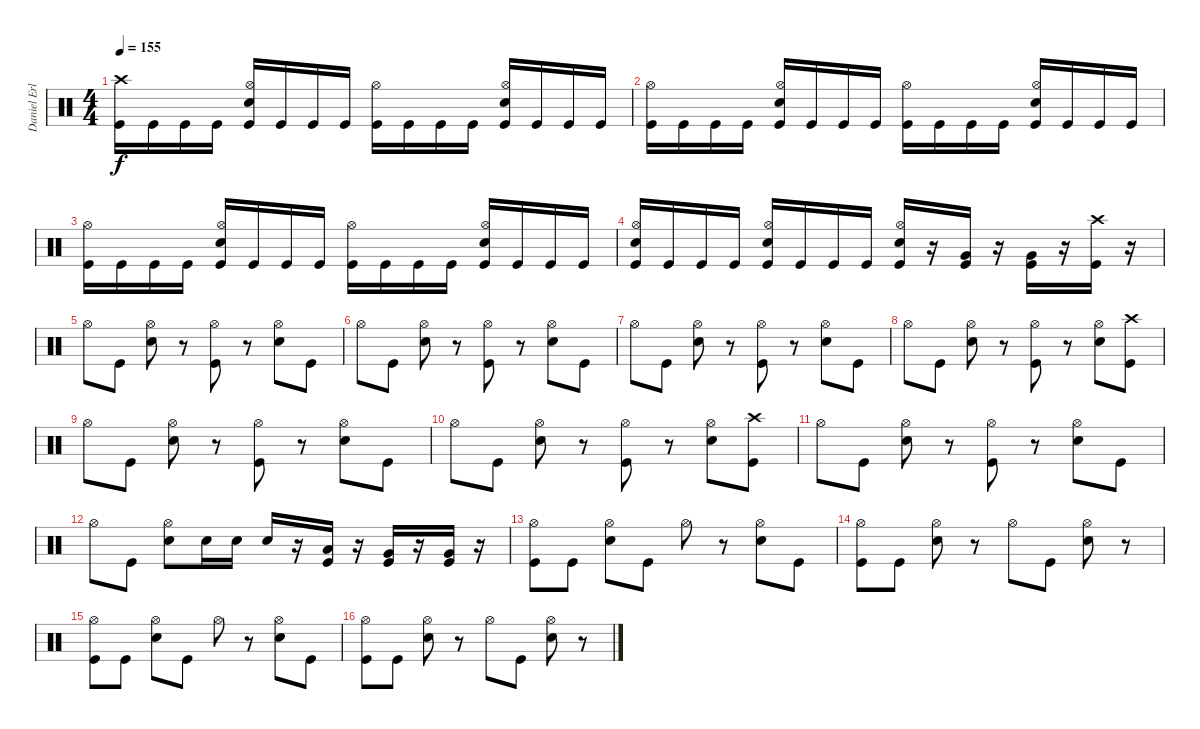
\track ("Daniel Erlandsson" "Daniel Erl") {instrument percussion}
\staff {score}
\articulation defaults
\ts (4 4)
\tempo 155
\clef neutral
\ks c
("Crash high (hit)" "Kick (hit)").16{dy f} "Kick (hit)".16 "Kick (hit)".16 "Kick (hit)".16 ("Hi-Hat (open)" "Snare (hit) 2" "Kick (hit)").16 "Kick (hit)".16 "Kick (hit)".16 "Kick (hit)".16 ("Hi-Hat (open)" "Kick (hit)").16 "Kick (hit)".16 "Kick (hit)".16 "Kick (hit)".16 ("Hi-Hat (open)" "Snare (hit) 2" "Kick (hit)").16 "Kick (hit)".16 "Kick (hit)".16 "Kick (hit)".16 |
("Hi-Hat (open)" "Kick (hit)").16 "Kick (hit)".16 "Kick (hit)".16 "Kick (hit)".16 ("Hi-Hat (open)" "Snare (hit) 2" "Kick (hit)").16 "Kick (hit)".16 "Kick (hit)".16 "Kick (hit)".16 ("Hi-Hat (open)" "Kick (hit)").16 "Kick (hit)".16 "Kick (hit)".16 "Kick (hit)".16 ("Hi-Hat (open)" "Snare (hit) 2" "Kick (hit)").16 "Kick (hit)".16 "Kick (hit)".16 "Kick (hit)".16 |
("Hi-Hat (open)" "Kick (hit)").16 "Kick (hit)".16 "Kick (hit)".16 "Kick (hit)".16 ("Hi-Hat (open)" "Snare (hit) 2" "Kick (hit)").16 "Kick (hit)".16 "Kick (hit)".16 "Kick (hit)".16 ("Hi-Hat (open)" "Kick (hit)").16 "Kick (hit)".16 "Kick (hit)".16 "Kick (hit)".16 ("Hi-Hat (open)" "Snare (hit) 2" "Kick (hit)").16 "Kick (hit)".16 "Kick (hit)".16 "Kick (hit)".16 |
("Hi-Hat (open)" "Snare (hit) 2" "Kick (hit)").16 "Kick (hit)".16 "Kick (hit)".16 "Kick (hit)".16 ("Hi-Hat (open)" "Snare (hit) 2" "Kick (hit)").16 "Kick (hit)".16 "Kick (hit)".16 "Kick (hit)".16 ("Hi-Hat (open)" "Snare (hit) 2" "Kick (hit)").16 r.16 ("Very Low Tom (hit)" "Kick (hit)").16 r.16 ("Very Low Tom (hit)" "Kick (hit)").16 r.16 ("Crash high (hit)" "Kick (hit)").16 r.16 |
"Hi-Hat (open)".8 "Kick (hit)".8 ("Hi-Hat (open)" "Snare (hit) 2").8 r.8 ("Hi-Hat (open)" "Kick (hit)").8 r.8 ("Hi-Hat (open)" "Snare (hit) 2").8 "Kick (hit)".8 |
"Hi-Hat (open)".8 "Kick (hit)".8 ("Hi-Hat (open)" "Snare (hit) 2").8 r.8 ("Hi-Hat (open)" "Kick (hit)").8 r.8 ("Hi-Hat (open)" "Snare (hit) 2").8 "Kick (hit)".8 |
"Hi-Hat (open)".8 "Kick (hit)".8 ("Hi-Hat (open)" "Snare (hit) 2").8 r.8 ("Hi-Hat (open)" "Kick (hit)").8 r.8 ("Hi-Hat (open)" "Snare (hit) 2").8 "Kick (hit)".8 |
"Hi-Hat (open)".8 "Kick (hit)".8 ("Hi-Hat (open)" "Snare (hit) 2").8 r.8 ("Hi-Hat (open)" "Kick (hit)").8 r.8 ("Hi-Hat (open)" "Snare (hit) 2").8 ("Crash high (hit)" "Kick (hit)").8 |
"Hi-Hat (open)".8 "Kick (hit)".8 ("Hi-Hat (open)" "Snare (hit) 2").8 r.8 ("Hi-Hat (open)" "Kick (hit)").8 r.8 ("Hi-Hat (open)" "Snare (hit) 2").8 "Kick (hit)".8 |
"Hi-Hat (open)".8 "Kick (hit)".8 ("Hi-Hat (open)" "Snare (hit) 2").8 r.8 ("Hi-Hat (open)" "Kick (hit)").8 r.8 ("Hi-Hat (open)" "Snare (hit) 2").8 ("Crash high (hit)" "Kick (hit)").8 |
"Hi-Hat (open)".8 "Kick (hit)".8 ("Hi-Hat (open)" "Snare (hit) 2").8 r.8 ("Hi-Hat (open)" "Kick (hit)").8 r.8 ("Hi-Hat (open)" "Snare (hit) 2").8 "Kick (hit)".8 |
"Hi-Hat (open)".8 "Kick (hit)".8 ("Hi-Hat (open)" "Snare (hit) 2").8 "Snare (hit) 2".16 "Snare (hit) 2".16 "Snare (hit) 2".16 r.16 ("Low Tom (hit)" "Kick (hit)").16 r.16 ("Very Low Tom (hit)" "Kick (hit)").16 r.16 ("Very Low Tom (hit)" "Kick (hit)").16 r.16 |
("Hi-Hat (open)" "Kick (hit)").8 "Kick (hit)".8 ("Hi-Hat (open)" "Snare (hit) 2").8 "Kick (hit)".8 "Hi-Hat (open)".8 r.8 ("Hi-Hat (open)" "Snare (hit) 2").8 "Kick (hit)".8 |
("Hi-Hat (open)" "Kick (hit)").8 "Kick (hit)".8 ("Hi-Hat (open)" "Snare (hit) 2").8 r.8 "Hi-Hat (open)".8 "Kick (hit)".8 ("Hi-Hat (open)" "Snare (hit) 2").8 r.8 |
("Hi-Hat (open)" "Kick (hit)").8 "Kick (hit)".8 ("Hi-Hat (open)" "Snare (hit) 2").8 "Kick (hit)".8 "Hi-Hat (open)".8 r.8 ("Hi-Hat (open)" "Snare (hit) 2").8 "Kick (hit)".8 |
("Hi-Hat (open)" "Kick (hit)").8 "Kick (hit)".8 ("Hi-Hat (open)" "Snare (hit) 2").8 r.8 "Hi-Hat (open)".8 "Kick (hit)".8 ("Hi-Hat (open)" "Snare (hit) 2").8 r.8
